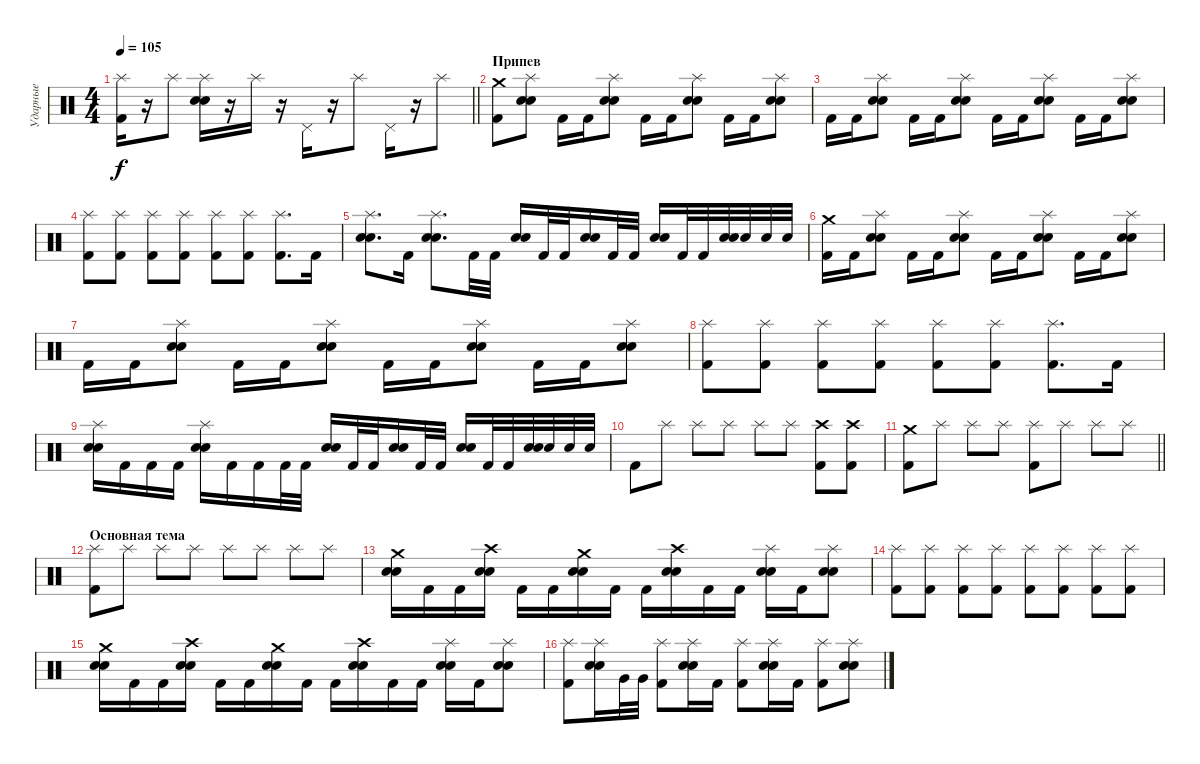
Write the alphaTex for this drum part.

\track ("Ударные" "Ударные") {instrument percussion}
\staff {score}
\articulation defaults
\ts (4 4)
\tempo 105
\clef neutral
\barLineRight lightlight
\ks c
("Splash (hit)" "Kick (hit) 2").16{dy f} r.16 "Splash (hit)".8 ("Splash (hit)" "Electric Snare (hit)" "Snare (hit) 2").16 r.16 "Splash (hit)".16 r.16 "Pedal Hi-Hat (hit)".16 r.16 "Splash (hit)".8 "Pedal Hi-Hat (hit)".16 r.16 "Splash (hit)".8 |
\section ("" "Припев")
("Crash medium (hit)" "Kick (hit) 2").8 ("Splash (hit)" "Electric Snare (hit)" "Snare (hit) 2").8 "Kick (hit) 2".16 "Kick (hit) 2".16 ("Splash (hit)" "Electric Snare (hit)" "Snare (hit) 2").8 "Kick (hit) 2".16 "Kick (hit) 2".16 ("Splash (hit)" "Electric Snare (hit)" "Snare (hit) 2").8 "Kick (hit) 2".16 "Kick (hit) 2".16 ("Splash (hit)" "Electric Snare (hit)" "Snare (hit) 2").8 |
"Kick (hit) 2".16 "Kick (hit) 2".16 ("Splash (hit)" "Electric Snare (hit)" "Snare (hit) 2").8 "Kick (hit) 2".16 "Kick (hit) 2".16 ("Splash (hit)" "Electric Snare (hit)" "Snare (hit) 2").8 "Kick (hit) 2".16 "Kick (hit) 2".16 ("Splash (hit)" "Electric Snare (hit)" "Snare (hit) 2").8 "Kick (hit) 2".16 "Kick (hit) 2".16 ("Splash (hit)" "Electric Snare (hit)" "Snare (hit) 2").8 |
("Splash (hit)" "Kick (hit) 2").8 ("Splash (hit)" "Kick (hit) 2").8 ("Splash (hit)" "Kick (hit) 2").8 ("Splash (hit)" "Kick (hit) 2").8 ("Splash (hit)" "Kick (hit) 2").8 ("Splash (hit)" "Kick (hit) 2").8 ("Splash (hit)" "Kick (hit) 2").8{d} "Kick (hit) 2".16 |
("Splash (hit)" "Electric Snare (hit)" "Snare (hit) 2").8{d} "Kick (hit) 2".16 ("Splash (hit)" "Electric Snare (hit)" "Snare (hit) 2").8{d} "Kick (hit) 2".32 "Kick (hit) 2".32 ("Electric Snare (hit)" "Snare (hit) 2").16 "Kick (hit) 2".32 "Kick (hit) 2".32 ("Electric Snare (hit)" "Snare (hit) 2").16 "Kick (hit) 2".32 "Kick (hit) 2".32 ("Electric Snare (hit)" "Snare (hit) 2").16 "Kick (hit) 2".32 "Kick (hit) 2".32 ("Electric Snare (hit)" "Snare (hit) 2").32 "Electric Snare (hit)".32 "Electric Snare (hit)".32 "Electric Snare (hit)".32 |
("Crash medium (hit)" "Kick (hit) 2").16 "Kick (hit) 2".16 ("Splash (hit)" "Electric Snare (hit)" "Snare (hit) 2").8 "Kick (hit) 2".16 "Kick (hit) 2".16 ("Splash (hit)" "Electric Snare (hit)" "Snare (hit) 2").8 "Kick (hit) 2".16 "Kick (hit) 2".16 ("Splash (hit)" "Electric Snare (hit)" "Snare (hit) 2").8 "Kick (hit) 2".16 "Kick (hit) 2".16 ("Splash (hit)" "Electric Snare (hit)" "Snare (hit) 2").8 |
"Kick (hit) 2".16 "Kick (hit) 2".16 ("Splash (hit)" "Electric Snare (hit)" "Snare (hit) 2").8 "Kick (hit) 2".16 "Kick (hit) 2".16 ("Splash (hit)" "Electric Snare (hit)" "Snare (hit) 2").8 "Kick (hit) 2".16 "Kick (hit) 2".16 ("Splash (hit)" "Electric Snare (hit)" "Snare (hit) 2").8 "Kick (hit) 2".16 "Kick (hit) 2".16 ("Splash (hit)" "Electric Snare (hit)" "Snare (hit) 2").8 |
("Splash (hit)" "Kick (hit) 2").8 ("Splash (hit)" "Kick (hit) 2").8 ("Splash (hit)" "Kick (hit) 2").8 ("Splash (hit)" "Kick (hit) 2").8 ("Splash (hit)" "Kick (hit) 2").8 ("Splash (hit)" "Kick (hit) 2").8 ("Splash (hit)" "Kick (hit) 2").8{d} "Kick (hit) 2".16 |
("Splash (hit)" "Electric Snare (hit)" "Snare (hit) 2").16 "Kick (hit) 2".16 "Kick (hit) 2".16 "Kick (hit) 2".16 ("Splash (hit)" "Electric Snare (hit)" "Snare (hit) 2").16 "Kick (hit) 2".16 "Kick (hit) 2".16 "Kick (hit) 2".32 "Kick (hit) 2".32 ("Electric Snare (hit)" "Snare (hit) 2").16 "Kick (hit) 2".32 "Kick (hit) 2".32 ("Electric Snare (hit)" "Snare (hit) 2").16 "Kick (hit) 2".32 "Kick (hit) 2".32 ("Electric Snare (hit)" "Snare (hit) 2").16 "Kick (hit) 2".32 "Kick (hit) 2".32 ("Electric Snare (hit)" "Snare (hit) 2").32 "Electric Snare (hit)".32 "Electric Snare (hit)".32 "Electric Snare (hit)".32 |
"Kick (hit) 2".8 "Splash (hit)".8 "Splash (hit)".8 "Splash (hit)".8 "Splash (hit)".8 "Splash (hit)".8 ("Crash high (hit)" "Kick (hit) 2").8 ("Crash high (hit)" "Kick (hit) 2").8 |
\barLineRight lightlight
("Crash medium (hit)" "Kick (hit) 2").8 "Splash (hit)".8 "Splash (hit)".8 "Splash (hit)".8 ("Splash (hit)" "Kick (hit) 2").8 "Splash (hit)".8 "Splash (hit)".8 "Splash (hit)".8 |
\section ("" "Основная тема")
("Splash (hit)" "Kick (hit) 2").8 "Splash (hit)".8 "Splash (hit)".8 "Splash (hit)".8 "Splash (hit)".8 "Splash (hit)".8 "Splash (hit)".8 "Splash (hit)".8 |
("Crash medium (hit)" "Electric Snare (hit)" "Snare (hit) 2").16 "Kick (hit) 2".16 "Kick (hit) 2".16 ("Crash high (hit)" "Electric Snare (hit)" "Snare (hit) 2").16 "Kick (hit) 2".16 "Kick (hit) 2".16 ("Crash medium (hit)" "Electric Snare (hit)" "Snare (hit) 2").16 "Kick (hit) 2".16 "Kick (hit) 2".16 ("Crash high (hit)" "Electric Snare (hit)" "Snare (hit) 2").16 "Kick (hit) 2".16 "Kick (hit) 2".16 ("Splash (hit)" "Electric Snare (hit)" "Snare (hit) 2").16 "Kick (hit) 2".16 ("Splash (hit)" "Electric Snare (hit)" "Snare (hit) 2").8 |
("Splash (hit)" "Kick (hit) 2").8 ("Splash (hit)" "Kick (hit) 2").8 ("Splash (hit)" "Kick (hit) 2").8 ("Splash (hit)" "Kick (hit) 2").8 ("Splash (hit)" "Kick (hit) 2").8 ("Splash (hit)" "Kick (hit) 2").8 ("Splash (hit)" "Kick (hit) 2").8 ("Splash (hit)" "Kick (hit) 2").8 |
("Crash medium (hit)" "Electric Snare (hit)" "Snare (hit) 2").16 "Kick (hit) 2".16 "Kick (hit) 2".16 ("Crash high (hit)" "Electric Snare (hit)" "Snare (hit) 2").16 "Kick (hit) 2".16 "Kick (hit) 2".16 ("Crash medium (hit)" "Electric Snare (hit)" "Snare (hit) 2").16 "Kick (hit) 2".16 "Kick (hit) 2".16 ("Crash high (hit)" "Electric Snare (hit)" "Snare (hit) 2").16 "Kick (hit) 2".16 "Kick (hit) 2".16 ("Splash (hit)" "Electric Snare (hit)" "Snare (hit) 2").16 "Kick (hit) 2".16 ("Splash (hit)" "Electric Snare (hit)" "Snare (hit) 2").8 |
("Splash (hit)" "Kick (hit) 2").8 ("Splash (hit)" "Electric Snare (hit)" "Snare (hit) 2").16 "Very Low Tom (hit)".32 "Very Low Tom (hit)".32 ("Splash (hit)" "Kick (hit) 2").8 ("Splash (hit)" "Electric Snare (hit)" "Snare (hit) 2").16 "Kick (hit) 2".16 ("Splash (hit)" "Kick (hit) 2").8 ("Splash (hit)" "Electric Snare (hit)" "Snare (hit) 2").16 "Kick (hit) 2".16 ("Splash (hit)" "Kick (hit) 2").8 ("Splash (hit)" "Electric Snare (hit)" "Snare (hit) 2").8
